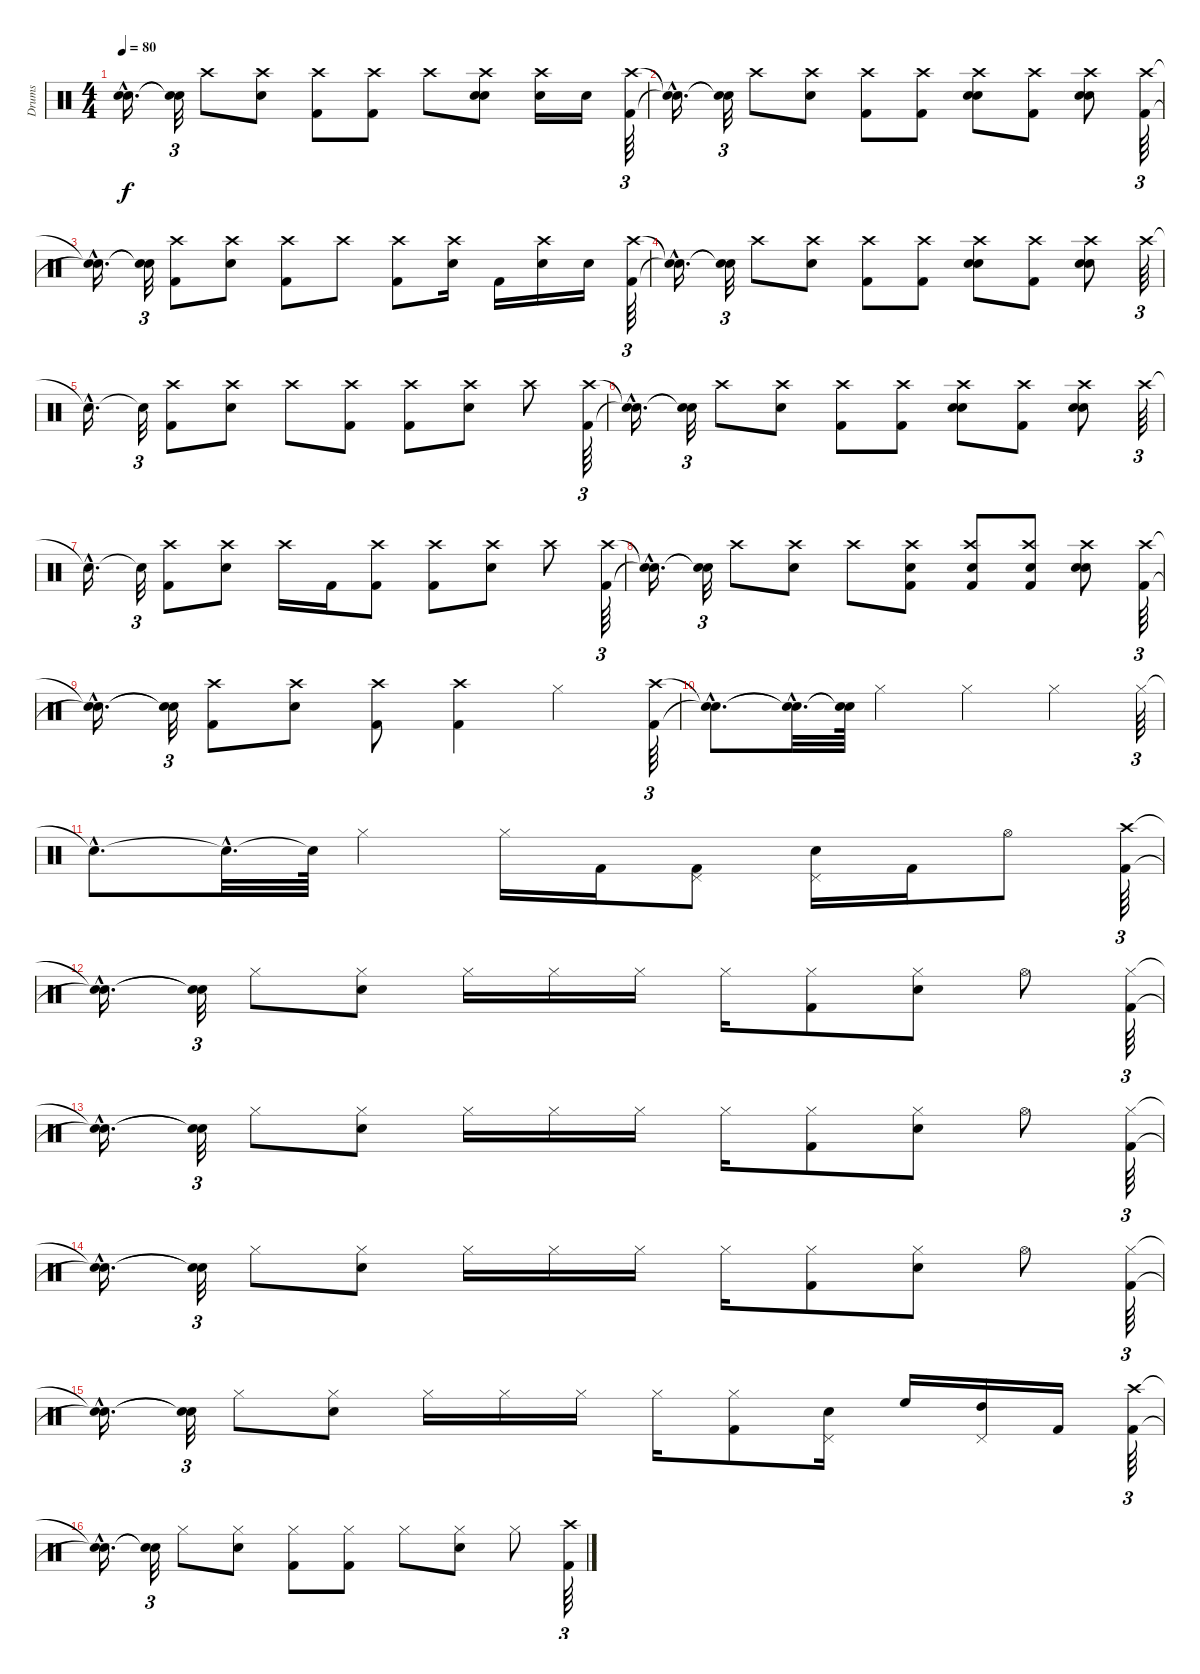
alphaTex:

\track ("Drums" "Drums") {instrument percussion}
\staff {score}
\articulation defaults
\ts (4 4)
\tempo 80
\clef neutral
\ks c
("Snare (hit)"{hac t} "Snare (hit)"{hac t}).16{d dy f} ("Snare (hit)"{t} "Snare (hit)"{t}).32{tu (3 2)} "Crash high (hit)".8 ("Crash high (hit)" "Electric Snare (hit)").8 ("Crash high (hit)" "Kick (hit) 2").8 ("Crash high (hit)" "Kick (hit) 2").8 "Crash high (hit)".8 ("Electric Snare (hit)" "Crash high (hit)" "Electric Snare (hit)").8 ("Crash high (hit)" "Electric Snare (hit)").16 "Electric Snare (hit)".16 ("Crash high (hit)" "Kick (hit) 2").64{tu (3 2)} |
("Snare (hit)"{hac t} "Snare (hit)"{hac t}).16{d} ("Snare (hit)"{t} "Snare (hit)"{t}).32{tu (3 2)} "Crash high (hit)".8 ("Crash high (hit)" "Electric Snare (hit)").8 ("Crash high (hit)" "Kick (hit) 2").8 ("Crash high (hit)" "Kick (hit) 2").8 ("Crash high (hit)" "Snare (hit) 2" "Electric Snare (hit)").8 ("Crash high (hit)" "Kick (hit) 2").8 ("Crash high (hit)" "Snare (hit) 2" "Electric Snare (hit)").8 ("Crash high (hit)" "Kick (hit) 2").64{tu (3 2)} |
("Snare (hit)"{hac t} "Snare (hit)"{hac t}).16{d} ("Snare (hit)"{t} "Snare (hit)"{t}).32{tu (3 2)} ("Crash high (hit)" "Kick (hit) 2").8 ("Crash high (hit)" "Electric Snare (hit)").8 ("Crash high (hit)" "Kick (hit) 2").8 "Crash high (hit)".8 ("Crash high (hit)" "Kick (hit) 2").8 ("Crash high (hit)" "Electric Snare (hit)").16 "Kick (hit) 2".16 ("Crash high (hit)" "Electric Snare (hit)").16 "Electric Snare (hit)".16 ("Crash high (hit)" "Kick (hit) 2").64{tu (3 2)} |
("Snare (hit)"{hac t} "Snare (hit)"{hac t}).16{d} ("Snare (hit)"{t} "Snare (hit)"{t}).32{tu (3 2)} "Crash high (hit)".8 ("Crash high (hit)" "Electric Snare (hit)").8 ("Crash high (hit)" "Kick (hit) 2").8 ("Crash high (hit)" "Kick (hit) 2").8 ("Crash high (hit)" "Snare (hit) 2" "Electric Snare (hit)").8 ("Crash high (hit)" "Kick (hit) 2").8 ("Crash high (hit)" "Snare (hit) 2" "Electric Snare (hit)").8 "Crash high (hit)".64{tu (3 2)} |
"Snare (hit)"{hac t}.16{d} "Snare (hit)"{t}.32{tu (3 2)} ("Crash high (hit)" "Kick (hit) 2").8 ("Crash high (hit)" "Electric Snare (hit)").8 "Crash high (hit)".8 ("Crash high (hit)" "Kick (hit) 2").8 ("Crash high (hit)" "Kick (hit) 2").8 ("Crash high (hit)" "Electric Snare (hit)").8 "Crash high (hit)".8 ("Crash high (hit)" "Kick (hit) 2").64{tu (3 2)} |
("Snare (hit)"{hac t} "Snare (hit)"{hac t}).16{d} ("Snare (hit)"{t} "Snare (hit)"{t}).32{tu (3 2)} "Crash high (hit)".8 ("Crash high (hit)" "Electric Snare (hit)").8 ("Crash high (hit)" "Kick (hit) 2").8 ("Crash high (hit)" "Kick (hit) 2").8 ("Crash high (hit)" "Snare (hit) 2" "Electric Snare (hit)").8 ("Crash high (hit)" "Kick (hit) 2").8 ("Crash high (hit)" "Snare (hit) 2" "Electric Snare (hit)").8 "Crash high (hit)".64{tu (3 2)} |
"Snare (hit)"{hac t}.16{d} "Snare (hit)"{t}.32{tu (3 2)} ("Crash high (hit)" "Kick (hit) 2").8 ("Crash high (hit)" "Electric Snare (hit)").8 "Crash high (hit)".16 "Kick (hit) 2".16 ("Crash high (hit)" "Kick (hit) 2").8 ("Crash high (hit)" "Kick (hit) 2").8 ("Crash high (hit)" "Electric Snare (hit)").8 "Crash high (hit)".8 ("Crash high (hit)" "Kick (hit) 2").64{tu (3 2)} |
("Snare (hit)"{hac t} "Snare (hit)"{hac t}).16{d} ("Snare (hit)"{t} "Snare (hit)"{t}).32{tu (3 2)} "Crash high (hit)".8 ("Crash high (hit)" "Electric Snare (hit)").8 "Crash high (hit)".8 ("Crash high (hit)" "Snare (hit) 2" "Kick (hit) 2").8 ("Crash high (hit)" "Snare (hit) 2" "Kick (hit) 2").8 ("Crash high (hit)" "Snare (hit) 2" "Kick (hit) 2").8 ("Crash high (hit)" "Snare (hit) 2" "Electric Snare (hit)").8 ("Crash high (hit)" "Kick (hit) 2").64{tu (3 2)} |
("Snare (hit)"{hac t} "Snare (hit)"{hac t}).16{d} ("Snare (hit)"{t} "Snare (hit)"{t}).32{tu (3 2)} ("Crash high (hit)" "Kick (hit) 2").8 ("Crash high (hit)" "Electric Snare (hit)").8 ("Crash high (hit)" "Kick (hit) 2").8 ("Crash high (hit)" "Kick (hit) 2").4 "Hi-Hat (closed)".4 ("Crash high (hit)" "Kick (hit) 2").64{tu (3 2)} |
("Snare (hit)"{hac t} "Snare (hit)"{hac t}).8{d} ("Snare (hit)"{hac t} "Snare (hit)"{hac t}).32{d} ("Snare (hit)"{t} "Snare (hit)"{t}).64 "Hi-Hat (closed)".4 "Hi-Hat (closed)".4 "Hi-Hat (closed)".4 "Hi-Hat (closed)".64{tu (3 2)} |
"Snare (hit)"{hac t}.8{d} "Snare (hit)"{hac t}.32{d} "Snare (hit)"{t}.64 "Hi-Hat (closed)".4 "Hi-Hat (closed)".16 "Kick (hit) 2".16 ("Pedal Hi-Hat (hit)" "Kick (hit) 2").8 ("Pedal Hi-Hat (hit)" "Electric Snare (hit)").16 "Kick (hit) 2".16 "Hi-Hat (open)".8 ("Crash high (hit)" "Kick (hit) 2").64{tu (3 2)} |
("Snare (hit)"{hac t} "Snare (hit)"{hac t}).16{d} ("Snare (hit)"{t} "Snare (hit)"{t}).32{tu (3 2)} "Hi-Hat (closed)".8 ("Hi-Hat (closed)" "Electric Snare (hit)").8 "Hi-Hat (closed)".16 "Hi-Hat (closed)".16 "Hi-Hat (closed)".16 "Hi-Hat (closed)".16 ("Hi-Hat (closed)" "Kick (hit) 2").8 ("Hi-Hat (closed)" "Electric Snare (hit)").8 "Hi-Hat (open)".8 ("Hi-Hat (closed)" "Kick (hit) 2").64{tu (3 2)} |
("Snare (hit)"{hac t} "Snare (hit)"{hac t}).16{d} ("Snare (hit)"{t} "Snare (hit)"{t}).32{tu (3 2)} "Hi-Hat (closed)".8 ("Hi-Hat (closed)" "Electric Snare (hit)").8 "Hi-Hat (closed)".16 "Hi-Hat (closed)".16 "Hi-Hat (closed)".16 "Hi-Hat (closed)".16 ("Hi-Hat (closed)" "Kick (hit) 2").8 ("Hi-Hat (closed)" "Electric Snare (hit)").8 "Hi-Hat (open)".8 ("Hi-Hat (closed)" "Kick (hit) 2").64{tu (3 2)} |
("Snare (hit)"{hac t} "Snare (hit)"{hac t}).16{d} ("Snare (hit)"{t} "Snare (hit)"{t}).32{tu (3 2)} "Hi-Hat (closed)".8 ("Hi-Hat (closed)" "Electric Snare (hit)").8 "Hi-Hat (closed)".16 "Hi-Hat (closed)".16 "Hi-Hat (closed)".16 "Hi-Hat (closed)".16 ("Hi-Hat (closed)" "Kick (hit) 2").8 ("Hi-Hat (closed)" "Electric Snare (hit)").8 "Hi-Hat (open)".8 ("Hi-Hat (closed)" "Kick (hit) 2").64{tu (3 2)} |
("Snare (hit)"{hac t} "Snare (hit)"{hac t}).16{d} ("Snare (hit)"{t} "Snare (hit)"{t}).32{tu (3 2)} "Hi-Hat (closed)".8 ("Hi-Hat (closed)" "Electric Snare (hit)").8 "Hi-Hat (closed)".16 "Hi-Hat (closed)".16 "Hi-Hat (closed)".16 "Hi-Hat (closed)".16 ("Hi-Hat (closed)" "Kick (hit) 2").8 ("Pedal Hi-Hat (hit)" "Electric Snare (hit)").16 "High Floor Tom (hit)".16 ("Pedal Hi-Hat (hit)" "High Tom (hit)").16 "Kick (hit) 2".16 ("Crash high (hit)" "Kick (hit) 2").64{tu (3 2)} |
("Snare (hit)"{hac t} "Snare (hit)"{hac t}).16{d} ("Snare (hit)"{t} "Snare (hit)"{t}).32{tu (3 2)} "Hi-Hat (closed)".8 ("Hi-Hat (closed)" "Electric Snare (hit)").8 ("Hi-Hat (closed)" "Kick (hit) 2").8 ("Hi-Hat (closed)" "Kick (hit) 2").8 "Hi-Hat (closed)".8 ("Hi-Hat (closed)" "Electric Snare (hit)").8 "Hi-Hat (closed)".8 ("Crash high (hit)" "Kick (hit) 2").64{tu (3 2)}
